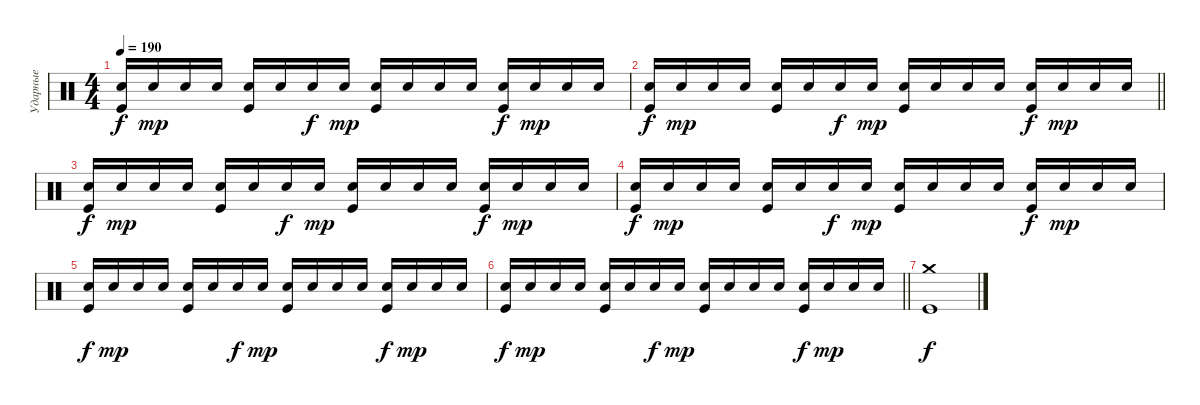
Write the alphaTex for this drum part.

\track ("Ударные" "Ударные") {instrument percussion}
\staff {score}
\articulation defaults
\ts (4 4)
\tempo 190
\clef neutral
\ks c
("Electric Snare (hit)" "Kick (hit)").16{dy f} "Electric Snare (hit)".16{dy mp} "Electric Snare (hit)".16 "Electric Snare (hit)".16 ("Electric Snare (hit)" "Kick (hit)").16 "Electric Snare (hit)".16 "Electric Snare (hit)".16{dy f} "Electric Snare (hit)".16{dy mp} ("Electric Snare (hit)" "Kick (hit)").16 "Electric Snare (hit)".16 "Electric Snare (hit)".16 "Electric Snare (hit)".16 ("Electric Snare (hit)" "Kick (hit)").16{dy f} "Electric Snare (hit)".16{dy mp} "Electric Snare (hit)".16 "Electric Snare (hit)".16 |
\barLineRight lightlight
("Electric Snare (hit)" "Kick (hit)").16{dy f} "Electric Snare (hit)".16{dy mp} "Electric Snare (hit)".16 "Electric Snare (hit)".16 ("Electric Snare (hit)" "Kick (hit)").16 "Electric Snare (hit)".16 "Electric Snare (hit)".16{dy f} "Electric Snare (hit)".16{dy mp} ("Electric Snare (hit)" "Kick (hit)").16 "Electric Snare (hit)".16 "Electric Snare (hit)".16 "Electric Snare (hit)".16 ("Electric Snare (hit)" "Kick (hit)").16{dy f} "Electric Snare (hit)".16{dy mp} "Electric Snare (hit)".16 "Electric Snare (hit)".16 |
("Electric Snare (hit)" "Kick (hit)").16{dy f} "Electric Snare (hit)".16{dy mp} "Electric Snare (hit)".16 "Electric Snare (hit)".16 ("Electric Snare (hit)" "Kick (hit)").16 "Electric Snare (hit)".16 "Electric Snare (hit)".16{dy f} "Electric Snare (hit)".16{dy mp} ("Electric Snare (hit)" "Kick (hit)").16 "Electric Snare (hit)".16 "Electric Snare (hit)".16 "Electric Snare (hit)".16 ("Electric Snare (hit)" "Kick (hit)").16{dy f} "Electric Snare (hit)".16{dy mp} "Electric Snare (hit)".16 "Electric Snare (hit)".16 |
("Electric Snare (hit)" "Kick (hit)").16{dy f} "Electric Snare (hit)".16{dy mp} "Electric Snare (hit)".16 "Electric Snare (hit)".16 ("Electric Snare (hit)" "Kick (hit)").16 "Electric Snare (hit)".16 "Electric Snare (hit)".16{dy f} "Electric Snare (hit)".16{dy mp} ("Electric Snare (hit)" "Kick (hit)").16 "Electric Snare (hit)".16 "Electric Snare (hit)".16 "Electric Snare (hit)".16 ("Electric Snare (hit)" "Kick (hit)").16{dy f} "Electric Snare (hit)".16{dy mp} "Electric Snare (hit)".16 "Electric Snare (hit)".16 |
("Electric Snare (hit)" "Kick (hit)").16{dy f} "Electric Snare (hit)".16{dy mp} "Electric Snare (hit)".16 "Electric Snare (hit)".16 ("Electric Snare (hit)" "Kick (hit)").16 "Electric Snare (hit)".16 "Electric Snare (hit)".16{dy f} "Electric Snare (hit)".16{dy mp} ("Electric Snare (hit)" "Kick (hit)").16 "Electric Snare (hit)".16 "Electric Snare (hit)".16 "Electric Snare (hit)".16 ("Electric Snare (hit)" "Kick (hit)").16{dy f} "Electric Snare (hit)".16{dy mp} "Electric Snare (hit)".16 "Electric Snare (hit)".16 |
\barLineRight lightlight
("Electric Snare (hit)" "Kick (hit)").16{dy f} "Electric Snare (hit)".16{dy mp} "Electric Snare (hit)".16 "Electric Snare (hit)".16 ("Electric Snare (hit)" "Kick (hit)").16 "Electric Snare (hit)".16 "Electric Snare (hit)".16{dy f} "Electric Snare (hit)".16{dy mp} ("Electric Snare (hit)" "Kick (hit)").16 "Electric Snare (hit)".16 "Electric Snare (hit)".16 "Electric Snare (hit)".16 ("Electric Snare (hit)" "Kick (hit)").16{dy f} "Electric Snare (hit)".16{dy mp} "Electric Snare (hit)".16 "Electric Snare (hit)".16 |
("Crash medium (hit)" "Kick (hit)").1{dy f}
